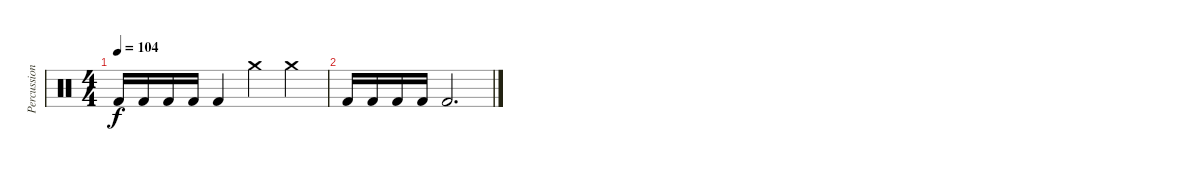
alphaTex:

\track ("Percussion" "Percussion") {instrument percussion}
\staff {score}
\articulation defaults
\ts (4 4)
\tempo 104
\clef neutral
\ks c "Kick (hit) 2".16{dy f} "Kick (hit) 2".16 "Kick (hit) 2".16 "Kick (hit) 2".16 "Kick (hit) 2".4 "Crash medium (hit)".4 "Crash medium (hit)".4
|
"Kick (hit) 2".16 "Kick (hit) 2".16 "Kick (hit) 2".16 "Kick (hit) 2".16 "Kick (hit) 2".2{d}
